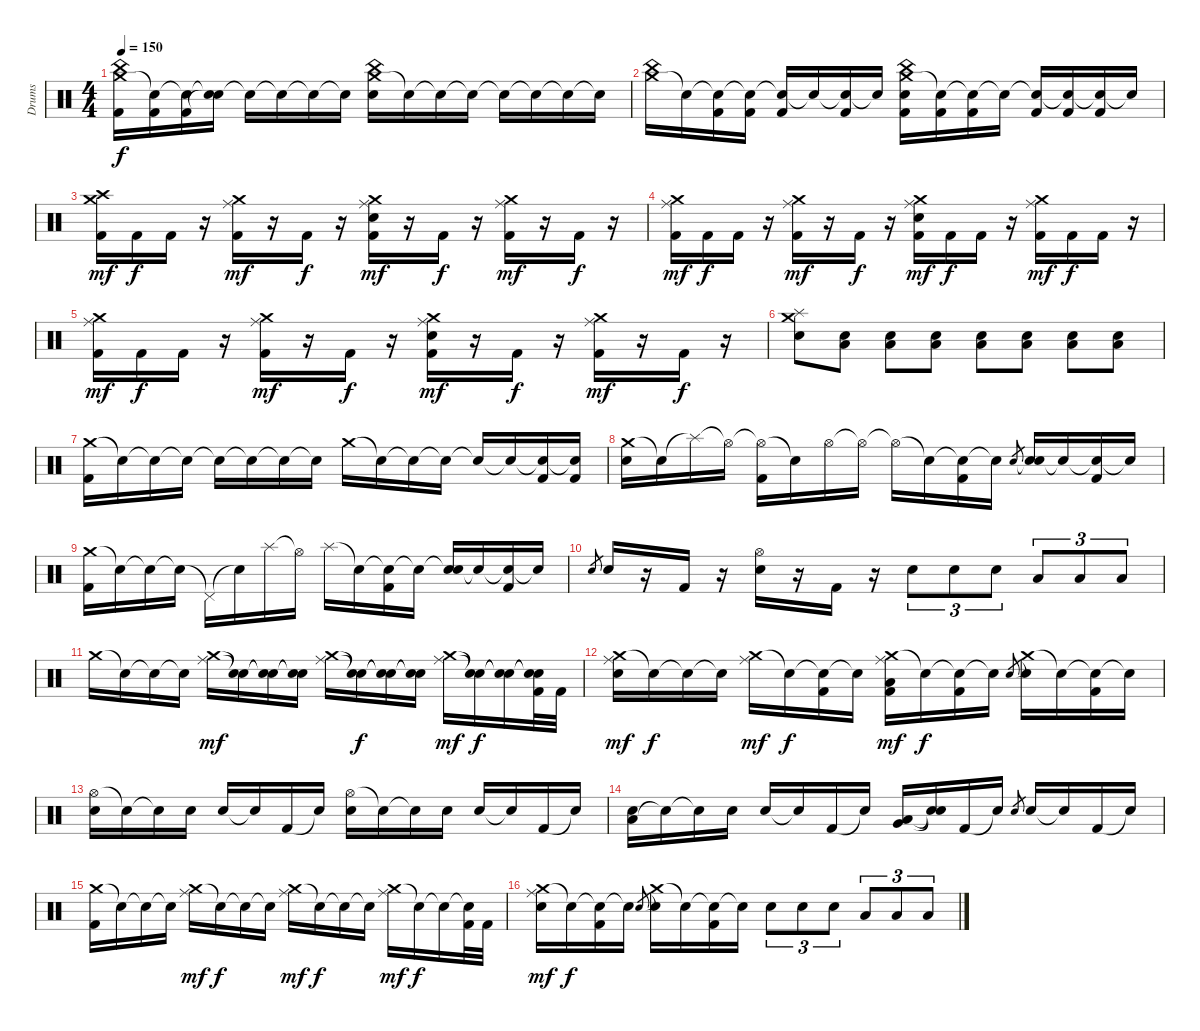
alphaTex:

\track ("Drums" "Drums") {instrument percussion}
\staff {score}
\articulation defaults
\ts (4 4)
\tempo 150
\clef neutral
\ks c
("Crash medium (hit)" "China (hit)" "Kick (hit) 2").16{dy f} ("Snare (hit)"{t} "Kick (hit) 2").16 ("Snare (hit)"{t} "Kick (hit) 2").16 ("Snare (hit)"{t} "Snare (hit)"{t}).16 "Snare (hit)"{t}.16 "Snare (hit)"{t}.16 "Snare (hit)"{t}.16 "Snare (hit)"{t}.16 ("Crash medium (hit)" "China (hit)" "Electric Snare (hit)").16 "Snare (hit)"{t}.16 "Snare (hit)"{t}.16 "Snare (hit)"{t}.16 "Snare (hit)"{t}.16 "Snare (hit)"{t}.16 "Snare (hit)"{t}.16 "Snare (hit)"{t}.16 |
("Crash medium (hit)" "China (hit)").16 "Snare (hit)"{t}.16 ("Snare (hit)"{t} "Kick (hit) 2").16 ("Snare (hit)"{t} "Kick (hit) 2").16 ("Snare (hit)"{t} "Kick (hit) 2").16 "Snare (hit)"{t}.16 ("Snare (hit)"{t} "Kick (hit) 2").16 "Snare (hit)"{t}.16 ("Crash medium (hit)" "China (hit)" "Electric Snare (hit)" "Kick (hit) 2").16 ("Snare (hit)"{t} "Kick (hit) 2").16 ("Snare (hit)"{t} "Kick (hit) 2").16 "Snare (hit)"{t}.16 ("Snare (hit)"{t} "Kick (hit) 2").16 ("Snare (hit)"{t} "Kick (hit) 2").16 ("Snare (hit)"{t} "Kick (hit) 2").16 "Snare (hit)"{t}.16 |
("Crash medium (hit)" "Crash high (hit)" "Kick (hit) 2").16{dy mf} "Kick (hit) 2".16{dy f} "Kick (hit) 2".16 r.16 ("Crash medium (hit)" "Ride (middle)" "Kick (hit) 2").16{dy mf} r.16 "Kick (hit) 2".16{dy f} r.16 ("Crash medium (hit)" "Ride (middle)" "Electric Snare (hit)" "Kick (hit) 2").16{dy mf} r.16 "Kick (hit) 2".16{dy f} r.16 ("Crash medium (hit)" "Ride (middle)" "Kick (hit) 2").16{dy mf} r.16 "Kick (hit) 2".16{dy f} r.16 |
("Crash medium (hit)" "Ride (middle)" "Kick (hit) 2").16{dy mf} "Kick (hit) 2".16{dy f} "Kick (hit) 2".16 r.16 ("Crash medium (hit)" "Ride (middle)" "Kick (hit) 2").16{dy mf} r.16 "Kick (hit) 2".16{dy f} r.16 ("Crash medium (hit)" "Ride (middle)" "Electric Snare (hit)" "Kick (hit) 2").16{dy mf} "Kick (hit) 2".16{dy f} "Kick (hit) 2".16 r.16 ("Crash medium (hit)" "Ride (middle)" "Kick (hit) 2").16{dy mf} "Kick (hit) 2".16{dy f} "Kick (hit) 2".16 r.16 |
("Crash medium (hit)" "Ride (middle)" "Kick (hit) 2").16{dy mf} "Kick (hit) 2".16{dy f} "Kick (hit) 2".16 r.16 ("Crash medium (hit)" "Ride (middle)" "Kick (hit) 2").16{dy mf} r.16 "Kick (hit) 2".16{dy f} r.16 ("Crash medium (hit)" "Ride (middle)" "Electric Snare (hit)" "Kick (hit) 2").16{dy mf} r.16 "Kick (hit) 2".16{dy f} r.16 ("Crash medium (hit)" "Ride (middle)" "Kick (hit) 2").16{dy mf} r.16 "Kick (hit) 2".16{dy f} r.16 |
("Splash (hit)" "Crash medium (hit)" "Electric Snare (hit)").8 ("Electric Snare (hit)" "Low Tom (hit)").8 ("Electric Snare (hit)" "Low Tom (hit)").8 ("Electric Snare (hit)" "Low Tom (hit)").8 ("Electric Snare (hit)" "Low Tom (hit)").8 ("Electric Snare (hit)" "Low Tom (hit)").8 ("Electric Snare (hit)" "Low Tom (hit)").8 ("Electric Snare (hit)" "Low Tom (hit)").8 |
("Crash medium (hit)" "Kick (hit) 2").16 "Snare (hit)"{t}.16 "Snare (hit)"{t}.16 "Snare (hit)"{t}.16 "Snare (hit)"{t}.16 "Snare (hit)"{t}.16 "Snare (hit)"{t}.16 "Snare (hit)"{t}.16 "Crash medium (hit)".16 "Snare (hit)"{t}.16 "Snare (hit)"{t}.16 "Snare (hit)"{t}.16 "Snare (hit)"{t}.16 "Snare (hit)"{t}.16 ("Snare (hit)"{t} "Kick (hit) 2").16 ("Snare (hit)"{t} "Kick (hit) 2").16 |
("Crash medium (hit)" "Electric Snare (hit)").16 "Snare (hit)"{t}.16 "Splash (hit)"{t}.16 "Hi-Hat (open)"{t}.16 ("Hi-Hat (open)"{t} "Kick (hit) 2").16 "Snare (hit)"{t}.16 "Hi-Hat (open)".16 "Hi-Hat (open)"{t}.16 "Hi-Hat (open)"{t}.16 "Snare (hit)"{t}.16 ("Snare (hit)"{t} "Kick (hit) 2").16 "Snare (hit)"{t}.16 "Electric Snare (hit)".8{gr} ("Snare (hit)"{t} "Electric Snare (hit)").16 "Snare (hit)"{t}.16 ("Snare (hit)"{t} "Kick (hit) 2").16 "Snare (hit)"{t}.16 |
("Crash medium (hit)" "Kick (hit) 2").16 "Snare (hit)"{t}.16 "Snare (hit)"{t}.16 "Snare (hit)"{t}.16 "Pedal Hi-Hat (hit)"{t}.16 "Snare (hit)"{t}.16 "Splash (hit)".16 "Hi-Hat (open)"{t}.16 "Splash (hit)".16 "Snare (hit)"{t}.16 ("Snare (hit)"{t} "Kick (hit) 2").16 "Snare (hit)"{t}.16 ("Snare (hit)"{t} "Electric Snare (hit)").16 "Snare (hit)"{t}.16 ("Snare (hit)"{t} "Kick (hit) 2").16 "Snare (hit)"{t}.16 |
"Electric Snare (hit)".8{gr} "Electric Snare (hit)".16 r.16 "Kick (hit) 2".16 r.16 ("Hi-Hat (open)" "Electric Snare (hit)").16 r.16 "Kick (hit) 2".16 r.16 "Electric Snare (hit)".8{tu (3 2)} "Electric Snare (hit)".8{tu (3 2)} "Electric Snare (hit)".8{tu (3 2)} "Low Tom (hit)".8{tu (3 2)} "Low Tom (hit)".8{tu (3 2)} "Low Tom (hit)".8{tu (3 2)} |
"Crash medium (hit)".16 "Snare (hit)"{t}.16 "Snare (hit)"{t}.16 "Snare (hit)"{t}.16 ("Crash medium (hit)" "Ride (middle)").16{dy mf} ("Snare (hit)"{t} "Snare (hit)"{t}).16 ("Snare (hit)"{t} "Snare (hit)"{t}).16 ("Snare (hit)"{t} "Snare (hit)"{t}).16 ("Crash medium (hit)" "Ride (middle)").16 ("Snare (hit)"{t} "Snare (hit)"{t}).16{dy f} ("Snare (hit)"{t} "Snare (hit)"{t}).16 ("Snare (hit)"{t} "Snare (hit)"{t}).16 ("Crash medium (hit)" "Ride (middle)").16{dy mf} ("Snare (hit)"{t} "Snare (hit)"{t}).16{dy f} ("Snare (hit)"{t} "Snare (hit)"{t}).16 ("Snare (hit)"{t} "Snare (hit)"{t} "Kick (hit) 2").32 "Kick (hit) 2".32 |
("Crash medium (hit)" "Ride (middle)" "Electric Snare (hit)").16{dy mf} "Snare (hit)"{t}.16{dy f} "Snare (hit)"{t}.16 "Snare (hit)"{t}.16 ("Crash medium (hit)" "Ride (middle)").16{dy mf} "Snare (hit)"{t}.16{dy f} ("Snare (hit)"{t} "Kick (hit) 2").16 "Snare (hit)"{t}.16 ("Crash medium (hit)" "Ride (middle)" "Low Tom (hit)" "Kick (hit) 2").16{dy mf} "Snare (hit)"{t}.16{dy f} ("Snare (hit)"{t} "Kick (hit) 2").16 "Snare (hit)"{t}.16 "Electric Snare (hit)".8{gr} ("Crash medium (hit)"{t} "Electric Snare (hit)").16 "Snare (hit)"{t}.16 ("Snare (hit)"{t} "Kick (hit) 2").16 "Snare (hit)"{t}.16 |
("Hi-Hat (open)" "Electric Snare (hit)").16 "Snare (hit)"{t}.16 "Snare (hit)"{t}.16 "Electric Snare (hit)".16 "Electric Snare (hit)".16 "Snare (hit)"{t}.16 "Kick (hit) 2".16 "Snare (hit)"{t}.16 ("Hi-Hat (open)" "Electric Snare (hit)").16 "Snare (hit)"{t}.16 "Snare (hit)"{t}.16 "Electric Snare (hit)".16 "Electric Snare (hit)".16 "Snare (hit)"{t}.16 "Kick (hit) 2".16 "Snare (hit)"{t}.16 |
("Low Tom (hit)" "Electric Snare (hit)").16 "Snare (hit)"{t}.16 "Snare (hit)"{t}.16 "Electric Snare (hit)".16 "Electric Snare (hit)".16 "Snare (hit)"{t}.16 "Kick (hit) 2".16 "Snare (hit)"{t}.16 ("Very Low Tom (hit)" "Low Tom (hit)").16 ("Snare (hit)"{t} "Snare (hit)"{t}).16 "Kick (hit) 2".16 "Snare (hit)"{t}.16 "Electric Snare (hit)".8{gr} "Electric Snare (hit)".16 "Snare (hit)"{t}.16 "Kick (hit) 2".16 "Snare (hit)"{t}.16 |
("Crash medium (hit)" "Kick (hit) 2").16 "Snare (hit)"{t}.16 "Snare (hit)"{t}.16 "Snare (hit)"{t}.16 ("Crash medium (hit)" "Ride (middle)").16{dy mf} "Snare (hit)"{t}.16{dy f} "Snare (hit)"{t}.16 "Snare (hit)"{t}.16 ("Crash medium (hit)" "Ride (middle)").16{dy mf} "Snare (hit)"{t}.16{dy f} "Snare (hit)"{t}.16 "Snare (hit)"{t}.16 ("Crash medium (hit)" "Ride (middle)").16{dy mf} "Snare (hit)"{t}.16{dy f} "Snare (hit)"{t}.16 ("Snare (hit)"{t} "Kick (hit) 2").32 "Kick (hit) 2".32 |
("Crash medium (hit)" "Ride (middle)" "Electric Snare (hit)").16{dy mf} "Snare (hit)"{t}.16{dy f} ("Snare (hit)"{t} "Kick (hit) 2").16 "Snare (hit)"{t}.16 "Electric Snare (hit)".8{gr} ("Crash medium (hit)"{t} "Electric Snare (hit)").16 "Snare (hit)"{t}.16 ("Snare (hit)"{t} "Kick (hit) 2").16 "Snare (hit)"{t}.16 "Electric Snare (hit)".8{tu (3 2)} "Electric Snare (hit)".8{tu (3 2)} "Electric Snare (hit)".8{tu (3 2)} "Low Tom (hit)".8{tu (3 2)} "Low Tom (hit)".8{tu (3 2)} "Low Tom (hit)".8{tu (3 2)}
